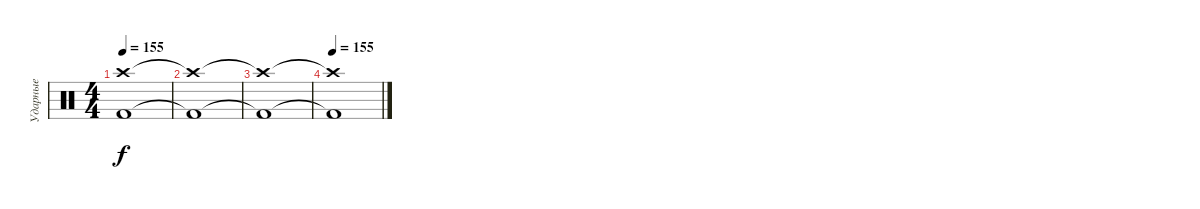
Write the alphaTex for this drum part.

\track ("Ударные" "Ударные") {instrument percussion}
\staff {score}
\articulation defaults
\ts (4 4)
\tempo 155
\clef neutral
\ks c
("Crash high (hit)" "Kick (hit) 2").1{dy f} |
("Crash high (hit)"{t} "Kick (hit) 2"{t}).1 |
("Crash high (hit)"{t} "Kick (hit) 2"{t}).1 |
\tempo 155
("Crash high (hit)"{t} "Kick (hit) 2"{t}).1
